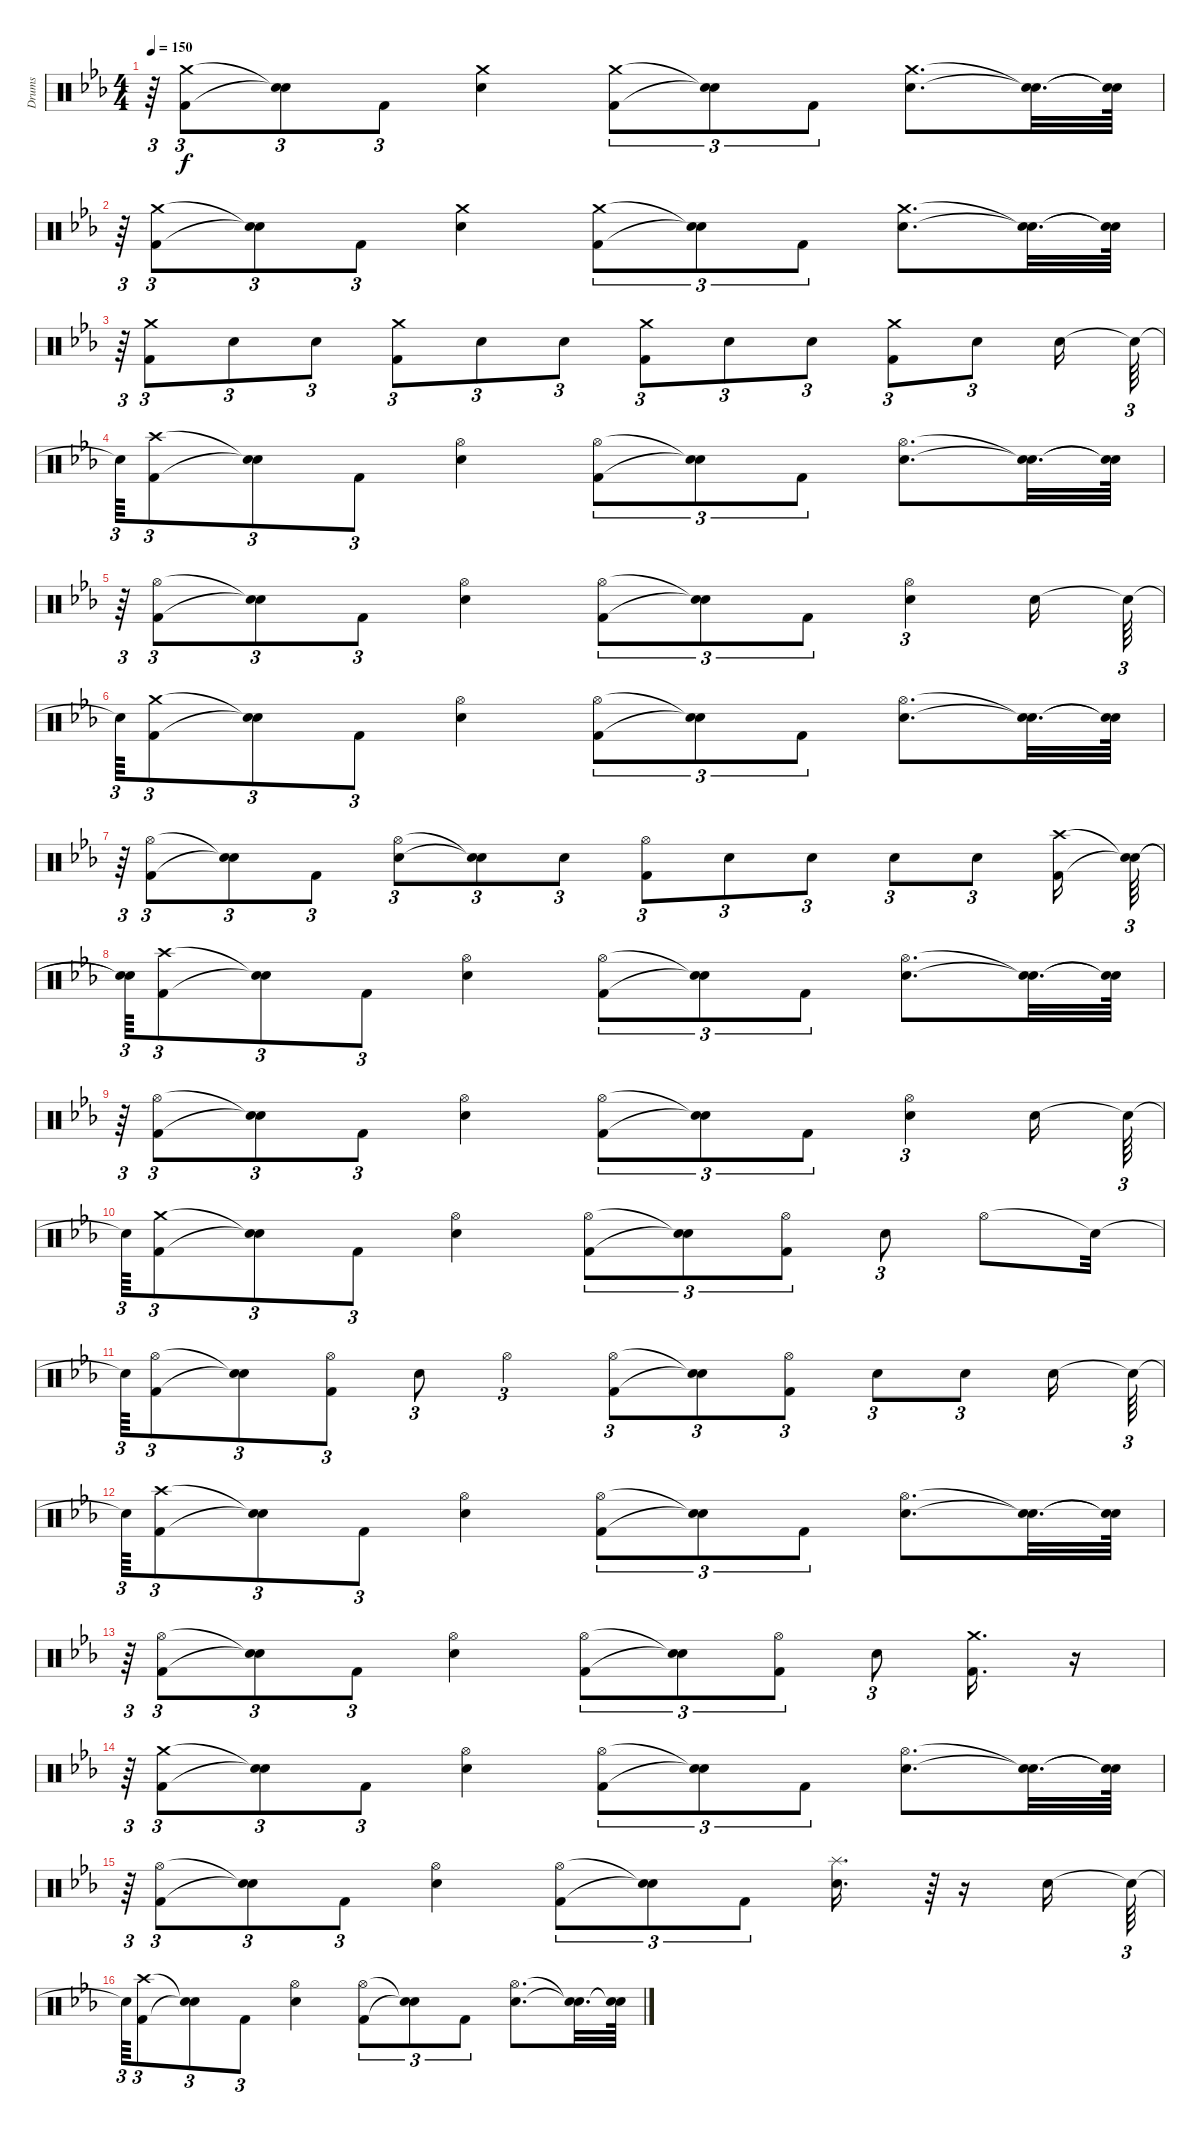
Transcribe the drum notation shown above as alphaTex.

\track ("Drums" "Drums") {instrument percussion}
\staff {score}
\articulation defaults
\ts (4 4)
\tempo 150
\clef neutral
\ks cminor
r.64{tu (3 2) dy f} ("Crash medium (hit)" "Kick (hit) 2").8{tu (3 2)} ("Snare (hit)"{t} "Snare (hit)"{t}).8{tu (3 2)} "Kick (hit) 2".8{tu (3 2)} ("Electric Snare (hit)" "Crash medium (hit)").4 ("Kick (hit) 2" "Crash medium (hit)").8{tu (3 2)} ("Snare (hit)"{t} "Snare (hit)"{t}).8{tu (3 2)} "Kick (hit) 2".8{tu (3 2)} ("Electric Snare (hit)" "Crash medium (hit)").8{d} ("Snare (hit)"{t} "Snare (hit)"{t}).32{d} ("Snare (hit)"{t} "Snare (hit)"{t}).64 |
r.64{tu (3 2)} ("Crash medium (hit)" "Kick (hit) 2").8{tu (3 2)} ("Snare (hit)"{t} "Snare (hit)"{t}).8{tu (3 2)} "Kick (hit) 2".8{tu (3 2)} ("Electric Snare (hit)" "Crash medium (hit)").4 ("Kick (hit) 2" "Crash medium (hit)").8{tu (3 2)} ("Snare (hit)"{t} "Snare (hit)"{t}).8{tu (3 2)} "Kick (hit) 2".8{tu (3 2)} ("Electric Snare (hit)" "Crash medium (hit)").8{d} ("Snare (hit)"{t} "Snare (hit)"{t}).32{d} ("Snare (hit)"{t} "Snare (hit)"{t}).64 |
r.64{tu (3 2)} ("Crash medium (hit)" "Kick (hit) 2").8{tu (3 2)} "Electric Snare (hit)".8{tu (3 2)} "Electric Snare (hit)".8{tu (3 2)} ("Crash medium (hit)" "Kick (hit) 2").8{tu (3 2)} "Electric Snare (hit)".8{tu (3 2)} "Electric Snare (hit)".8{tu (3 2)} ("Crash medium (hit)" "Kick (hit) 2").8{tu (3 2)} "Electric Snare (hit)".8{tu (3 2)} "Electric Snare (hit)".8{tu (3 2)} ("Crash medium (hit)" "Kick (hit) 2").8{tu (3 2)} "Electric Snare (hit)".8{tu (3 2)} "Electric Snare (hit)".16 "Snare (hit)"{t}.64{tu (3 2)} |
"Snare (hit)"{t}.64{tu (3 2)} ("Kick (hit) 2" "Crash high (hit)").8{tu (3 2)} ("Snare (hit)"{t} "Snare (hit)"{t}).8{tu (3 2)} "Kick (hit) 2".8{tu (3 2)} ("Electric Snare (hit)" "Hi-Hat (open)").4 ("Kick (hit) 2" "Hi-Hat (open)").8{tu (3 2)} ("Snare (hit)"{t} "Snare (hit)"{t}).8{tu (3 2)} "Kick (hit) 2".8{tu (3 2)} ("Electric Snare (hit)" "Hi-Hat (open)").8{d} ("Snare (hit)"{t} "Snare (hit)"{t}).32{d} ("Snare (hit)"{t} "Snare (hit)"{t}).64 |
r.64{tu (3 2)} ("Kick (hit) 2" "Hi-Hat (open)").8{tu (3 2)} ("Snare (hit)"{t} "Snare (hit)"{t}).8{tu (3 2)} "Kick (hit) 2".8{tu (3 2)} ("Electric Snare (hit)" "Hi-Hat (open)").4 ("Kick (hit) 2" "Hi-Hat (open)").8{tu (3 2)} ("Snare (hit)"{t} "Snare (hit)"{t}).8{tu (3 2)} "Kick (hit) 2".8{tu (3 2)} ("Hi-Hat (open)" "Electric Snare (hit)").4{tu (3 2)} "Electric Snare (hit)".16 "Snare (hit)"{t}.64{tu (3 2)} |
"Snare (hit)"{t}.64{tu (3 2)} ("Kick (hit) 2" "Crash medium (hit)").8{tu (3 2)} ("Snare (hit)"{t} "Snare (hit)"{t}).8{tu (3 2)} "Kick (hit) 2".8{tu (3 2)} ("Electric Snare (hit)" "Hi-Hat (open)").4 ("Kick (hit) 2" "Hi-Hat (open)").8{tu (3 2)} ("Snare (hit)"{t} "Snare (hit)"{t}).8{tu (3 2)} "Kick (hit) 2".8{tu (3 2)} ("Electric Snare (hit)" "Hi-Hat (open)").8{d} ("Snare (hit)"{t} "Snare (hit)"{t}).32{d} ("Snare (hit)"{t} "Snare (hit)"{t}).64 |
r.64{tu (3 2)} ("Kick (hit) 2" "Hi-Hat (open)").8{tu (3 2)} ("Snare (hit)"{t} "Snare (hit)"{t}).8{tu (3 2)} "Kick (hit) 2".8{tu (3 2)} ("Hi-Hat (open)" "Electric Snare (hit)").8{tu (3 2)} ("Snare (hit)"{t} "Snare (hit)"{t}).8{tu (3 2)} "Electric Snare (hit)".8{tu (3 2)} ("Kick (hit) 2" "Hi-Hat (open)").8{tu (3 2)} "Electric Snare (hit)".8{tu (3 2)} "Electric Snare (hit)".8{tu (3 2)} "Electric Snare (hit)".8{tu (3 2)} "Electric Snare (hit)".8{tu (3 2)} ("Kick (hit) 2" "Crash high (hit)").16 ("Snare (hit)"{t} "Snare (hit)"{t}).64{tu (3 2)} |
("Snare (hit)"{t} "Snare (hit)"{t}).64{tu (3 2)} ("Kick (hit) 2" "Crash high (hit)").8{tu (3 2)} ("Snare (hit)"{t} "Snare (hit)"{t}).8{tu (3 2)} "Kick (hit) 2".8{tu (3 2)} ("Electric Snare (hit)" "Hi-Hat (open)").4 ("Kick (hit) 2" "Hi-Hat (open)").8{tu (3 2)} ("Snare (hit)"{t} "Snare (hit)"{t}).8{tu (3 2)} "Kick (hit) 2".8{tu (3 2)} ("Electric Snare (hit)" "Hi-Hat (open)").8{d} ("Snare (hit)"{t} "Snare (hit)"{t}).32{d} ("Snare (hit)"{t} "Snare (hit)"{t}).64 |
r.64{tu (3 2)} ("Kick (hit) 2" "Hi-Hat (open)").8{tu (3 2)} ("Snare (hit)"{t} "Snare (hit)"{t}).8{tu (3 2)} "Kick (hit) 2".8{tu (3 2)} ("Electric Snare (hit)" "Hi-Hat (open)").4 ("Kick (hit) 2" "Hi-Hat (open)").8{tu (3 2)} ("Snare (hit)"{t} "Snare (hit)"{t}).8{tu (3 2)} "Kick (hit) 2".8{tu (3 2)} ("Hi-Hat (open)" "Electric Snare (hit)").4{tu (3 2)} "Electric Snare (hit)".16 "Snare (hit)"{t}.64{tu (3 2)} |
"Snare (hit)"{t}.64{tu (3 2)} ("Kick (hit) 2" "Crash medium (hit)").8{tu (3 2)} ("Snare (hit)"{t} "Snare (hit)"{t}).8{tu (3 2)} "Kick (hit) 2".8{tu (3 2)} ("Electric Snare (hit)" "Hi-Hat (open)").4 ("Kick (hit) 2" "Hi-Hat (open)").8{tu (3 2)} ("Snare (hit)"{t} "Snare (hit)"{t}).8{tu (3 2)} ("Kick (hit) 2" "Hi-Hat (open)").8{tu (3 2)} "Electric Snare (hit)".8{tu (3 2)} "Hi-Hat (open)".8 "Snare (hit)"{t}.32 |
"Snare (hit)"{t}.64{tu (3 2)} ("Kick (hit) 2" "Hi-Hat (open)").8{tu (3 2)} ("Snare (hit)"{t} "Snare (hit)"{t}).8{tu (3 2)} ("Kick (hit) 2" "Hi-Hat (open)").8{tu (3 2)} "Electric Snare (hit)".8{tu (3 2)} "Hi-Hat (open)".4{tu (3 2)} ("Kick (hit) 2" "Hi-Hat (open)").8{tu (3 2)} ("Snare (hit)"{t} "Snare (hit)"{t}).8{tu (3 2)} ("Kick (hit) 2" "Hi-Hat (open)").8{tu (3 2)} "Electric Snare (hit)".8{tu (3 2)} "Electric Snare (hit)".8{tu (3 2)} "Electric Snare (hit)".16 "Snare (hit)"{t}.64{tu (3 2)} |
"Snare (hit)"{t}.64{tu (3 2)} ("Crash high (hit)" "Kick (hit) 2").8{tu (3 2)} ("Snare (hit)"{t} "Snare (hit)"{t}).8{tu (3 2)} "Kick (hit) 2".8{tu (3 2)} ("Electric Snare (hit)" "Hi-Hat (open)").4 ("Kick (hit) 2" "Hi-Hat (open)").8{tu (3 2)} ("Snare (hit)"{t} "Snare (hit)"{t}).8{tu (3 2)} "Kick (hit) 2".8{tu (3 2)} ("Electric Snare (hit)" "Hi-Hat (open)").8{d} ("Snare (hit)"{t} "Snare (hit)"{t}).32{d} ("Snare (hit)"{t} "Snare (hit)"{t}).64 |
r.64{tu (3 2)} ("Kick (hit) 2" "Hi-Hat (open)").8{tu (3 2)} ("Snare (hit)"{t} "Snare (hit)"{t}).8{tu (3 2)} "Kick (hit) 2".8{tu (3 2)} ("Electric Snare (hit)" "Hi-Hat (open)").4 ("Kick (hit) 2" "Hi-Hat (open)").8{tu (3 2)} ("Snare (hit)"{t} "Snare (hit)"{t}).8{tu (3 2)} ("Kick (hit) 2" "Hi-Hat (open)").8{tu (3 2)} "Electric Snare (hit)".8{tu (3 2)} ("Kick (hit) 2" "Crash medium (hit)").16{d} r.16 |
r.64{tu (3 2)} ("Kick (hit) 2" "Crash medium (hit)").8{tu (3 2)} ("Snare (hit)"{t} "Snare (hit)"{t}).8{tu (3 2)} "Kick (hit) 2".8{tu (3 2)} ("Electric Snare (hit)" "Hi-Hat (open)").4 ("Kick (hit) 2" "Hi-Hat (open)").8{tu (3 2)} ("Snare (hit)"{t} "Snare (hit)"{t}).8{tu (3 2)} "Kick (hit) 2".8{tu (3 2)} ("Electric Snare (hit)" "Hi-Hat (open)").8{d} ("Snare (hit)"{t} "Snare (hit)"{t}).32{d} ("Snare (hit)"{t} "Snare (hit)"{t}).64 |
r.64{tu (3 2)} ("Kick (hit) 2" "Hi-Hat (open)").8{tu (3 2)} ("Snare (hit)"{t} "Snare (hit)"{t}).8{tu (3 2)} "Kick (hit) 2".8{tu (3 2)} ("Electric Snare (hit)" "Hi-Hat (open)").4 ("Kick (hit) 2" "Hi-Hat (open)").8{tu (3 2)} ("Snare (hit)"{t} "Snare (hit)"{t}).8{tu (3 2)} "Kick (hit) 2".8{tu (3 2)} ("Electric Snare (hit)" "Splash (hit)").16{d} r.64{tu (3 2)} r.16 "Electric Snare (hit)".16 "Snare (hit)"{t}.64{tu (3 2)} |
"Snare (hit)"{t}.64{tu (3 2)} ("Crash high (hit)" "Kick (hit) 2").8{tu (3 2)} ("Snare (hit)"{t} "Snare (hit)"{t}).8{tu (3 2)} "Kick (hit) 2".8{tu (3 2)} ("Electric Snare (hit)" "Hi-Hat (open)").4 ("Kick (hit) 2" "Hi-Hat (open)").8{tu (3 2)} ("Snare (hit)"{t} "Snare (hit)"{t}).8{tu (3 2)} "Kick (hit) 2".8{tu (3 2)} ("Electric Snare (hit)" "Hi-Hat (open)").8{d} ("Snare (hit)"{t} "Snare (hit)"{t}).32{d} ("Snare (hit)"{t} "Snare (hit)"{t}).64
